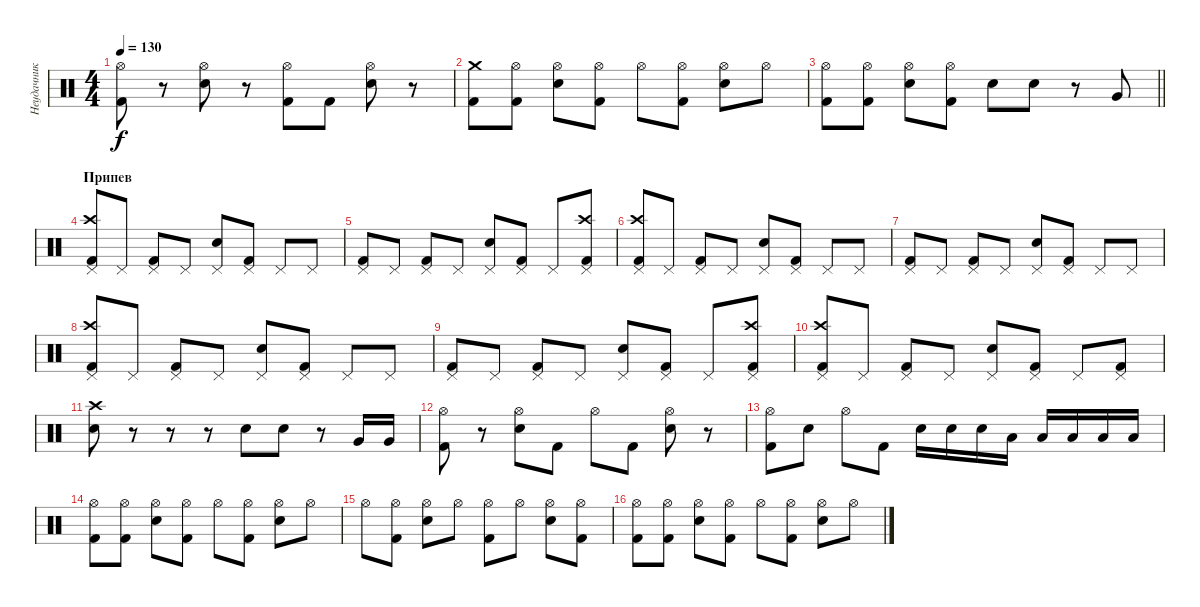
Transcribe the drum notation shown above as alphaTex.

\track ("Неудачник" "Неудачник") {instrument percussion}
\staff {score}
\articulation defaults
\ts (4 4)
\tempo 130
\clef neutral
\ks c
("Hi-Hat (open)" "Kick (hit) 2").8{dy f} r.8 ("Hi-Hat (open)" "Electric Snare (hit)").8 r.8 ("Hi-Hat (open)" "Kick (hit) 2").8 "Kick (hit) 2".8 ("Hi-Hat (open)" "Electric Snare (hit)").8 r.8 |
("Crash medium (hit)" "Kick (hit) 2").8 ("Hi-Hat (open)" "Kick (hit) 2").8 ("Hi-Hat (open)" "Electric Snare (hit)").8 ("Hi-Hat (open)" "Kick (hit) 2").8 "Hi-Hat (open)".8 ("Hi-Hat (open)" "Kick (hit) 2").8 ("Hi-Hat (open)" "Electric Snare (hit)").8 "Hi-Hat (open)".8 |
\barLineRight lightlight
("Hi-Hat (open)" "Kick (hit) 2").8 ("Hi-Hat (open)" "Kick (hit) 2").8 ("Hi-Hat (open)" "Electric Snare (hit)").8 ("Hi-Hat (open)" "Kick (hit) 2").8 "Electric Snare (hit)".8 "Electric Snare (hit)".8 r.8 "Very Low Tom (hit)".8 |
\section ("" "Припев")
("Crash high (hit)" "Pedal Hi-Hat (hit)" "Kick (hit) 2").8 "Pedal Hi-Hat (hit)".8 ("Pedal Hi-Hat (hit)" "Kick (hit) 2").8 "Pedal Hi-Hat (hit)".8 ("Pedal Hi-Hat (hit)" "Electric Snare (hit)").8 ("Pedal Hi-Hat (hit)" "Kick (hit) 2").8 "Pedal Hi-Hat (hit)".8 "Pedal Hi-Hat (hit)".8 |
("Pedal Hi-Hat (hit)" "Kick (hit) 2").8 "Pedal Hi-Hat (hit)".8 ("Pedal Hi-Hat (hit)" "Kick (hit) 2").8 "Pedal Hi-Hat (hit)".8 ("Pedal Hi-Hat (hit)" "Electric Snare (hit)").8 ("Pedal Hi-Hat (hit)" "Kick (hit) 2").8 "Pedal Hi-Hat (hit)".8 ("Crash high (hit)" "Pedal Hi-Hat (hit)" "Kick (hit) 2").8 |
("Crash high (hit)" "Pedal Hi-Hat (hit)" "Kick (hit) 2").8 "Pedal Hi-Hat (hit)".8 ("Pedal Hi-Hat (hit)" "Kick (hit) 2").8 "Pedal Hi-Hat (hit)".8 ("Pedal Hi-Hat (hit)" "Electric Snare (hit)").8 ("Pedal Hi-Hat (hit)" "Kick (hit) 2").8 "Pedal Hi-Hat (hit)".8 "Pedal Hi-Hat (hit)".8 |
("Pedal Hi-Hat (hit)" "Kick (hit) 2").8 "Pedal Hi-Hat (hit)".8 ("Pedal Hi-Hat (hit)" "Kick (hit) 2").8 "Pedal Hi-Hat (hit)".8 ("Pedal Hi-Hat (hit)" "Electric Snare (hit)").8 ("Pedal Hi-Hat (hit)" "Kick (hit) 2").8 "Pedal Hi-Hat (hit)".8 "Pedal Hi-Hat (hit)".8 |
("Crash high (hit)" "Pedal Hi-Hat (hit)" "Kick (hit) 2").8 "Pedal Hi-Hat (hit)".8 ("Pedal Hi-Hat (hit)" "Kick (hit) 2").8 "Pedal Hi-Hat (hit)".8 ("Pedal Hi-Hat (hit)" "Electric Snare (hit)").8 ("Pedal Hi-Hat (hit)" "Kick (hit) 2").8 "Pedal Hi-Hat (hit)".8 "Pedal Hi-Hat (hit)".8 |
("Pedal Hi-Hat (hit)" "Kick (hit) 2").8 "Pedal Hi-Hat (hit)".8 ("Pedal Hi-Hat (hit)" "Kick (hit) 2").8 "Pedal Hi-Hat (hit)".8 ("Pedal Hi-Hat (hit)" "Electric Snare (hit)").8 ("Pedal Hi-Hat (hit)" "Kick (hit) 2").8 "Pedal Hi-Hat (hit)".8 ("Crash high (hit)" "Pedal Hi-Hat (hit)" "Kick (hit) 2").8 |
("Crash high (hit)" "Pedal Hi-Hat (hit)" "Kick (hit) 2").8 "Pedal Hi-Hat (hit)".8 ("Pedal Hi-Hat (hit)" "Kick (hit) 2").8 "Pedal Hi-Hat (hit)".8 ("Pedal Hi-Hat (hit)" "Electric Snare (hit)").8 ("Pedal Hi-Hat (hit)" "Kick (hit) 2").8 "Pedal Hi-Hat (hit)".8 ("Pedal Hi-Hat (hit)" "Kick (hit) 2").8 |
("Crash high (hit)" "Electric Snare (hit)").8 r.8 r.8 r.8 "Electric Snare (hit)".8 "Electric Snare (hit)".8 r.8 "Very Low Tom (hit)".16 "Very Low Tom (hit)".16 |
("Hi-Hat (open)" "Kick (hit) 2").8 r.8 ("Hi-Hat (open)" "Electric Snare (hit)").8 "Kick (hit) 2".8 "Hi-Hat (open)".8 "Kick (hit) 2".8 ("Hi-Hat (open)" "Electric Snare (hit)").8 r.8 |
("Hi-Hat (open)" "Kick (hit) 2").8 "Electric Snare (hit)".8 "Hi-Hat (open)".8 "Kick (hit) 2".8 "Electric Snare (hit)".16 "Electric Snare (hit)".16 "Electric Snare (hit)".16 "Low Floor Tom (hit)".16 "Low Floor Tom (hit)".16 "Low Floor Tom (hit)".16 "Low Tom (hit)".16 "Low Tom (hit)".16 |
("Hi-Hat (open)" "Kick (hit) 2").8 ("Hi-Hat (open)" "Kick (hit) 2").8 ("Hi-Hat (open)" "Electric Snare (hit)").8 ("Hi-Hat (open)" "Kick (hit) 2").8 "Hi-Hat (open)".8 ("Hi-Hat (open)" "Kick (hit) 2").8 ("Hi-Hat (open)" "Electric Snare (hit)").8 "Hi-Hat (open)".8 |
"Hi-Hat (open)".8 ("Hi-Hat (open)" "Kick (hit) 2").8 ("Hi-Hat (open)" "Electric Snare (hit)").8 "Hi-Hat (open)".8 ("Hi-Hat (open)" "Kick (hit) 2").8 "Hi-Hat (open)".8 ("Hi-Hat (open)" "Electric Snare (hit)").8 ("Hi-Hat (open)" "Kick (hit) 2").8 |
("Hi-Hat (open)" "Kick (hit) 2").8 ("Hi-Hat (open)" "Kick (hit) 2").8 ("Hi-Hat (open)" "Electric Snare (hit)").8 ("Hi-Hat (open)" "Kick (hit) 2").8 "Hi-Hat (open)".8 ("Hi-Hat (open)" "Kick (hit) 2").8 ("Hi-Hat (open)" "Electric Snare (hit)").8 "Hi-Hat (open)".8
